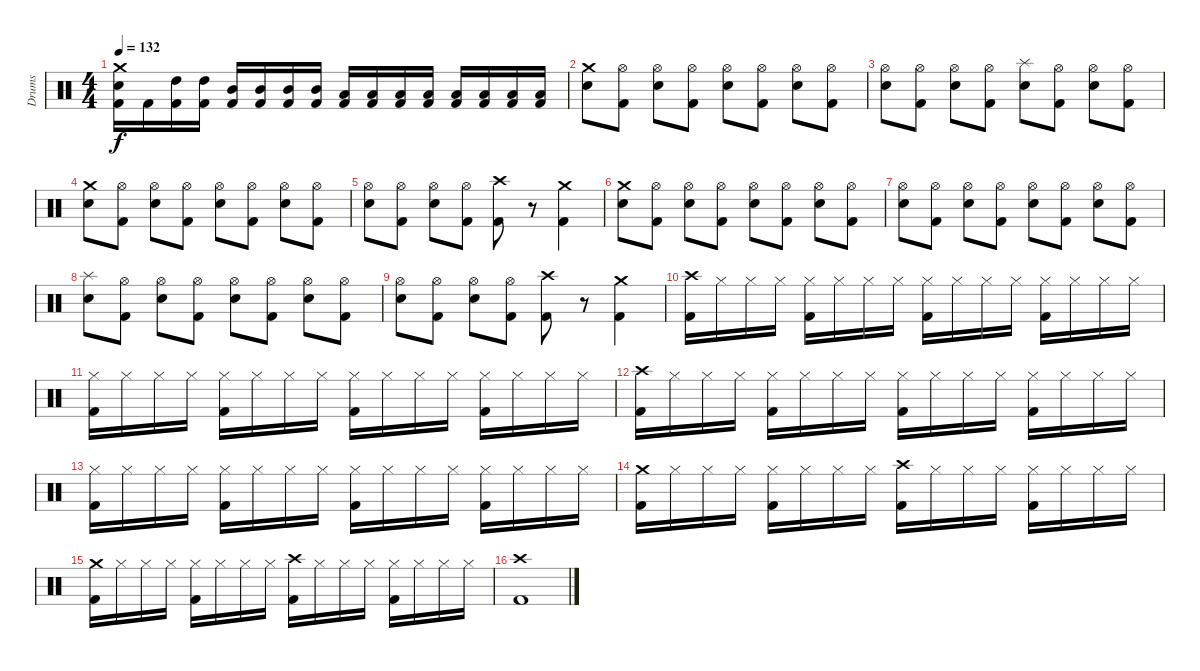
\track ("Drums" "Drums") {instrument percussion}
\staff {score}
\articulation defaults
\ts (4 4)
\tempo 132
\clef neutral
\ks c
("Crash medium (hit)" "Electric Snare (hit)" "Kick (hit) 2").16{dy f} "Kick (hit) 2".16 ("High Tom (hit)" "Kick (hit) 2").16 ("High Tom (hit)" "Kick (hit) 2").16 ("Mid Tom (hit)" "Kick (hit) 2").16 ("Mid Tom (hit)" "Kick (hit) 2").16 ("Mid Tom (hit)" "Kick (hit) 2").16 ("Mid Tom (hit)" "Kick (hit) 2").16 ("Low Tom (hit)" "Kick (hit) 2").16 ("Low Tom (hit)" "Kick (hit) 2").16 ("Low Tom (hit)" "Kick (hit) 2").16 ("Low Tom (hit)" "Kick (hit) 2").16 ("Low Floor Tom (hit)" "Kick (hit) 2").16 ("Low Floor Tom (hit)" "Kick (hit) 2").16 ("Low Floor Tom (hit)" "Kick (hit) 2").16 ("Low Floor Tom (hit)" "Kick (hit) 2").16 |
("Crash medium (hit)" "Electric Snare (hit)").8 ("Hi-Hat (open)" "Kick (hit) 2").8 ("Hi-Hat (open)" "Electric Snare (hit)").8 ("Hi-Hat (open)" "Kick (hit) 2").8 ("Hi-Hat (open)" "Electric Snare (hit)").8 ("Hi-Hat (open)" "Kick (hit) 2").8 ("Hi-Hat (open)" "Electric Snare (hit)").8 ("Hi-Hat (open)" "Kick (hit) 2").8 |
("Hi-Hat (open)" "Electric Snare (hit)").8 ("Hi-Hat (open)" "Kick (hit) 2").8 ("Hi-Hat (open)" "Electric Snare (hit)").8 ("Hi-Hat (open)" "Kick (hit) 2").8 ("Splash (hit)" "Electric Snare (hit)").8 ("Hi-Hat (open)" "Kick (hit) 2").8 ("Hi-Hat (open)" "Electric Snare (hit)").8 ("Hi-Hat (open)" "Kick (hit) 2").8 |
("Crash medium (hit)" "Electric Snare (hit)").8 ("Hi-Hat (open)" "Kick (hit) 2").8 ("Hi-Hat (open)" "Electric Snare (hit)").8 ("Hi-Hat (open)" "Kick (hit) 2").8 ("Hi-Hat (open)" "Electric Snare (hit)").8 ("Hi-Hat (open)" "Kick (hit) 2").8 ("Hi-Hat (open)" "Electric Snare (hit)").8 ("Hi-Hat (open)" "Kick (hit) 2").8 |
("Hi-Hat (open)" "Electric Snare (hit)").8 ("Hi-Hat (open)" "Kick (hit) 2").8 ("Hi-Hat (open)" "Electric Snare (hit)").8 ("Hi-Hat (open)" "Kick (hit) 2").8 ("Crash high (hit)" "Kick (hit) 2").8 r.8 ("Crash medium (hit)" "Kick (hit) 2").4 |
("Crash medium (hit)" "Electric Snare (hit)").8 ("Hi-Hat (open)" "Kick (hit) 2").8 ("Hi-Hat (open)" "Electric Snare (hit)").8 ("Hi-Hat (open)" "Kick (hit) 2").8 ("Hi-Hat (open)" "Electric Snare (hit)").8 ("Hi-Hat (open)" "Kick (hit) 2").8 ("Hi-Hat (open)" "Electric Snare (hit)").8 ("Hi-Hat (open)" "Kick (hit) 2").8 |
("Hi-Hat (open)" "Electric Snare (hit)").8 ("Hi-Hat (open)" "Kick (hit) 2").8 ("Hi-Hat (open)" "Electric Snare (hit)").8 ("Hi-Hat (open)" "Kick (hit) 2").8 ("Hi-Hat (open)" "Electric Snare (hit)").8 ("Hi-Hat (open)" "Kick (hit) 2").8 ("Hi-Hat (open)" "Electric Snare (hit)").8 ("Hi-Hat (open)" "Kick (hit) 2").8 |
("Splash (hit)" "Electric Snare (hit)").8 ("Hi-Hat (open)" "Kick (hit) 2").8 ("Hi-Hat (open)" "Electric Snare (hit)").8 ("Hi-Hat (open)" "Kick (hit) 2").8 ("Hi-Hat (open)" "Electric Snare (hit)").8 ("Hi-Hat (open)" "Kick (hit) 2").8 ("Hi-Hat (open)" "Electric Snare (hit)").8 ("Hi-Hat (open)" "Kick (hit) 2").8 |
("Hi-Hat (open)" "Electric Snare (hit)").8 ("Hi-Hat (open)" "Kick (hit) 2").8 ("Hi-Hat (open)" "Electric Snare (hit)").8 ("Hi-Hat (open)" "Kick (hit) 2").8 ("Crash high (hit)" "Kick (hit) 2").8 r.8 ("Crash medium (hit)" "Kick (hit) 2").4 |
("Crash high (hit)" "Kick (hit) 2").16 "Hi-Hat (closed)".16 "Hi-Hat (closed)".16 "Hi-Hat (closed)".16 ("Hi-Hat (closed)" "Kick (hit) 2").16 "Hi-Hat (closed)".16 "Hi-Hat (closed)".16 "Hi-Hat (closed)".16 ("Hi-Hat (closed)" "Kick (hit) 2").16 "Hi-Hat (closed)".16 "Hi-Hat (closed)".16 "Hi-Hat (closed)".16 ("Hi-Hat (closed)" "Kick (hit) 2").16 "Hi-Hat (closed)".16 "Hi-Hat (closed)".16 "Hi-Hat (closed)".16 |
("Hi-Hat (closed)" "Kick (hit) 2").16 "Hi-Hat (closed)".16 "Hi-Hat (closed)".16 "Hi-Hat (closed)".16 ("Hi-Hat (closed)" "Kick (hit) 2").16 "Hi-Hat (closed)".16 "Hi-Hat (closed)".16 "Hi-Hat (closed)".16 ("Hi-Hat (closed)" "Kick (hit) 2").16 "Hi-Hat (closed)".16 "Hi-Hat (closed)".16 "Hi-Hat (closed)".16 ("Hi-Hat (closed)" "Kick (hit) 2").16 "Hi-Hat (closed)".16 "Hi-Hat (closed)".16 "Hi-Hat (closed)".16 |
("Crash high (hit)" "Kick (hit) 2").16 "Hi-Hat (closed)".16 "Hi-Hat (closed)".16 "Hi-Hat (closed)".16 ("Hi-Hat (closed)" "Kick (hit) 2").16 "Hi-Hat (closed)".16 "Hi-Hat (closed)".16 "Hi-Hat (closed)".16 ("Hi-Hat (closed)" "Kick (hit) 2").16 "Hi-Hat (closed)".16 "Hi-Hat (closed)".16 "Hi-Hat (closed)".16 ("Hi-Hat (closed)" "Kick (hit) 2").16 "Hi-Hat (closed)".16 "Hi-Hat (closed)".16 "Hi-Hat (closed)".16 |
("Hi-Hat (closed)" "Kick (hit) 2").16 "Hi-Hat (closed)".16 "Hi-Hat (closed)".16 "Hi-Hat (closed)".16 ("Hi-Hat (closed)" "Kick (hit) 2").16 "Hi-Hat (closed)".16 "Hi-Hat (closed)".16 "Hi-Hat (closed)".16 ("Hi-Hat (closed)" "Kick (hit) 2").16 "Hi-Hat (closed)".16 "Hi-Hat (closed)".16 "Hi-Hat (closed)".16 ("Hi-Hat (closed)" "Kick (hit) 2").16 "Hi-Hat (closed)".16 "Hi-Hat (closed)".16 "Hi-Hat (closed)".16 |
("Crash medium (hit)" "Kick (hit) 2").16 "Hi-Hat (closed)".16 "Hi-Hat (closed)".16 "Hi-Hat (closed)".16 ("Hi-Hat (closed)" "Kick (hit) 2").16 "Hi-Hat (closed)".16 "Hi-Hat (closed)".16 "Hi-Hat (closed)".16 ("Crash high (hit)" "Kick (hit) 2").16 "Hi-Hat (closed)".16 "Hi-Hat (closed)".16 "Hi-Hat (closed)".16 ("Hi-Hat (closed)" "Kick (hit) 2").16 "Hi-Hat (closed)".16 "Hi-Hat (closed)".16 "Hi-Hat (closed)".16 |
("Crash medium (hit)" "Kick (hit) 2").16 "Hi-Hat (closed)".16 "Hi-Hat (closed)".16 "Hi-Hat (closed)".16 ("Hi-Hat (closed)" "Kick (hit) 2").16 "Hi-Hat (closed)".16 "Hi-Hat (closed)".16 "Hi-Hat (closed)".16 ("Crash high (hit)" "Kick (hit) 2").16 "Hi-Hat (closed)".16 "Hi-Hat (closed)".16 "Hi-Hat (closed)".16 ("Hi-Hat (closed)" "Kick (hit) 2").16 "Hi-Hat (closed)".16 "Hi-Hat (closed)".16 "Hi-Hat (closed)".16 |
("Crash high (hit)" "Kick (hit) 2").1
